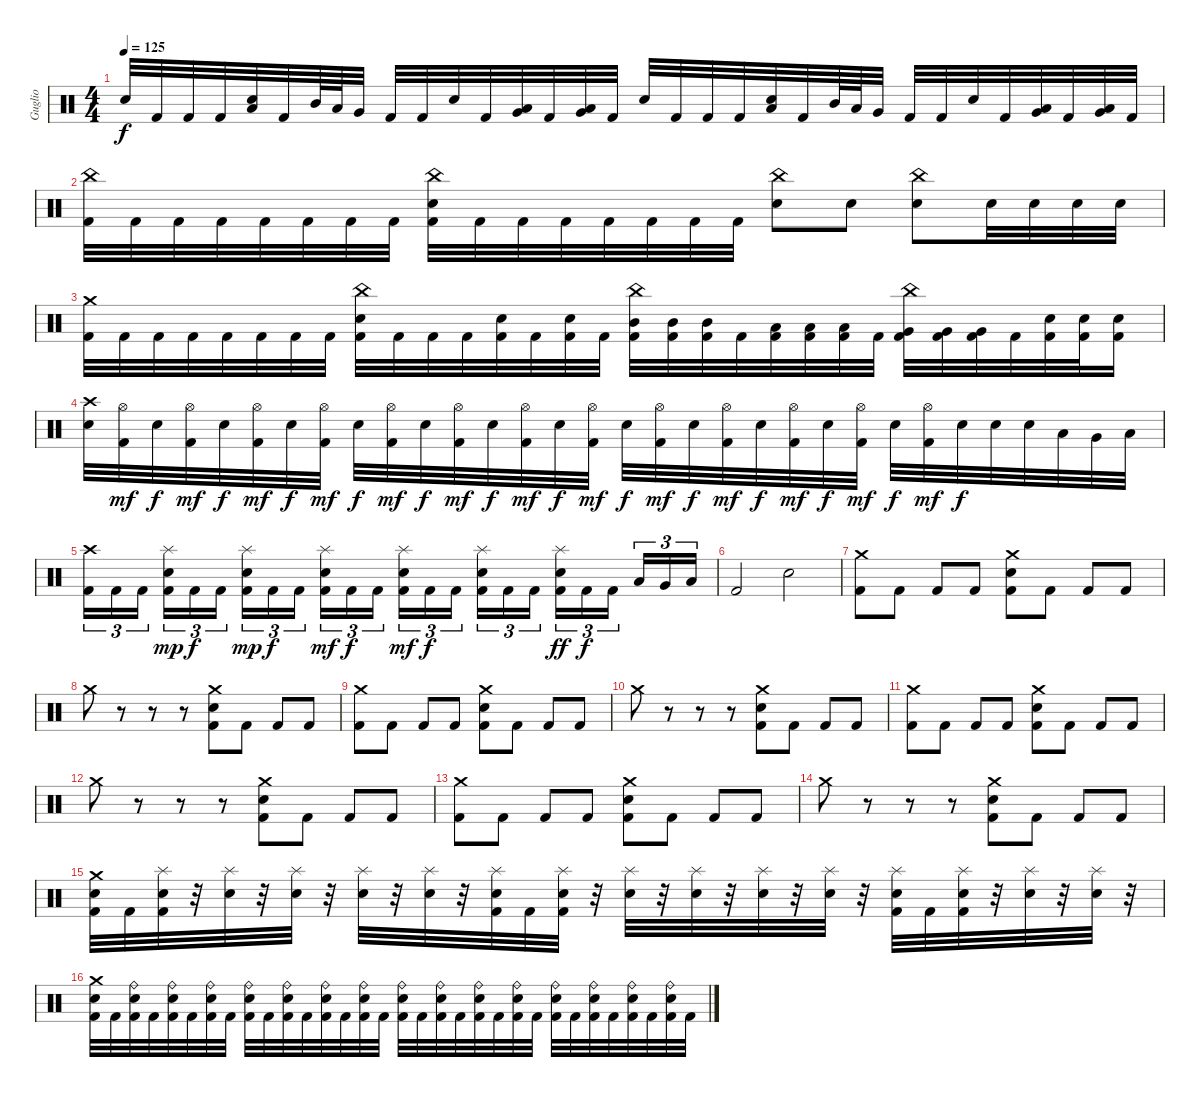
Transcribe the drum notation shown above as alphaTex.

\track ("Guglio" "Guglio") {instrument percussion}
\staff {score}
\articulation defaults
\ts (4 4)
\tempo 125
\clef neutral
\ks c "Electric Snare (hit)".32{bd 60 dy f} "Kick (hit) 2".32 "Kick (hit) 2".32 "Kick (hit) 2".32
("Low Tom (hit)" "Electric Snare (hit)").32 "Kick (hit) 2".32 "Mid Tom (hit)".64 "Low Tom (hit)".64 "Very Low Tom (hit)".32 "Kick (hit) 2".32 "Kick (hit) 2".32 "Electric Snare (hit)".32 "Kick (hit) 2".32 ("Low Tom (hit)" "Very Low Tom (hit)").32 "Kick (hit) 2".32 ("Very Low Tom (hit)" "Low Floor Tom (hit)").32 "Kick (hit) 2".32 "Electric Snare (hit)".32 "Kick (hit) 2".32 "Kick (hit) 2".32 "Kick (hit) 2".32 ("Low Tom (hit)" "Electric Snare (hit)").32 "Kick (hit) 2".32 "Mid Tom (hit)".64 "Low Tom (hit)".64 "Very Low Tom (hit)".32 "Kick (hit) 2".32 "Kick (hit) 2".32 "Electric Snare (hit)".32 "Kick (hit) 2".32 ("Low Tom (hit)" "Very Low Tom (hit)").32 "Kick (hit) 2".32 ("Very Low Tom (hit)" "Low Floor Tom (hit)").32 "Kick (hit) 2".32 |
("China (hit)" "Kick (hit) 2").32 "Kick (hit) 2".32 "Kick (hit) 2".32 "Kick (hit) 2".32 "Kick (hit) 2".32 "Kick (hit) 2".32 "Kick (hit) 2".32 "Kick (hit) 2".32 ("China (hit)" "Electric Snare (hit)" "Kick (hit) 2").32 "Kick (hit) 2".32 "Kick (hit) 2".32 "Kick (hit) 2".32 "Kick (hit) 2".32 "Kick (hit) 2".32 "Kick (hit) 2".32 "Kick (hit) 2".32 ("China (hit)" "Electric Snare (hit)").8 "Electric Snare (hit)".8 ("China (hit)" "Electric Snare (hit)").8 "Electric Snare (hit)".32 "Electric Snare (hit)".32 "Electric Snare (hit)".32 "Electric Snare (hit)".32 |
("Crash medium (hit)" "Kick (hit) 2").32 "Kick (hit) 2".32 "Kick (hit) 2".32 "Kick (hit) 2".32 "Kick (hit) 2".32 "Kick (hit) 2".32 "Kick (hit) 2".32 "Kick (hit) 2".32 ("China (hit)" "Electric Snare (hit)" "Kick (hit) 2").32 "Kick (hit) 2".32 "Kick (hit) 2".32 "Kick (hit) 2".32 ("Electric Snare (hit)" "Kick (hit) 2").32 "Kick (hit) 2".32 ("Electric Snare (hit)" "Kick (hit) 2").32 "Kick (hit) 2".32 ("China (hit)" "Mid Tom (hit)" "Kick (hit) 2").32 ("Mid Tom (hit)" "Kick (hit) 2").32 ("Mid Tom (hit)" "Kick (hit) 2").32 "Kick (hit) 2".32 ("Low Tom (hit)" "Kick (hit) 2").32 ("Low Tom (hit)" "Kick (hit) 2").32 ("Low Tom (hit)" "Kick (hit) 2").32 "Kick (hit) 2".32 ("China (hit)" "Very Low Tom (hit)" "Kick (hit) 2").32 ("Very Low Tom (hit)" "Kick (hit) 2").32 ("Very Low Tom (hit)" "Kick (hit) 2").32 "Kick (hit) 2".32 ("Electric Snare (hit)" "Kick (hit) 2").32 ("Electric Snare (hit)" "Kick (hit) 2").32 ("Electric Snare (hit)" "Kick (hit) 2").16 |
("Crash high (hit)" "Electric Snare (hit)").32 ("Hi-Hat (open)" "Kick (hit) 2").32{dy mf} "Electric Snare (hit)".32{dy f} ("Hi-Hat (open)" "Kick (hit) 2").32{dy mf} "Electric Snare (hit)".32{dy f} ("Hi-Hat (open)" "Kick (hit) 2").32{dy mf} "Electric Snare (hit)".32{dy f} ("Hi-Hat (open)" "Kick (hit) 2").32{dy mf} "Electric Snare (hit)".32{dy f} ("Hi-Hat (open)" "Kick (hit) 2").32{dy mf} "Electric Snare (hit)".32{dy f} ("Hi-Hat (open)" "Kick (hit) 2").32{dy mf} "Electric Snare (hit)".32{dy f} ("Hi-Hat (open)" "Kick (hit) 2").32{dy mf} "Electric Snare (hit)".32{dy f} ("Hi-Hat (open)" "Kick (hit) 2").32{dy mf} "Electric Snare (hit)".32{dy f} ("Hi-Hat (open)" "Kick (hit) 2").32{dy mf} "Electric Snare (hit)".32{dy f} ("Hi-Hat (open)" "Kick (hit) 2").32{dy mf} "Electric Snare (hit)".32{dy f} ("Hi-Hat (open)" "Kick (hit) 2").32{dy mf} "Electric Snare (hit)".32{dy f} ("Hi-Hat (open)" "Kick (hit) 2").32{dy mf} "Electric Snare (hit)".32{dy f} ("Hi-Hat (open)" "Kick (hit) 2").32{dy mf} "Electric Snare (hit)".32{dy f} "Electric Snare (hit)".32 "Electric Snare (hit)".32 "Low Tom (hit)".32 "Very Low Tom (hit)".32 "Low Floor Tom (hit)".32 |
("Crash high (hit)" "Kick (hit) 2").16{tu (3 2)} "Kick (hit) 2".16{tu (3 2)} "Kick (hit) 2".16{tu (3 2) beam splitsecondary} ("Splash (hit)" "Electric Snare (hit)" "Kick (hit) 2").16{tu (3 2) dy mp} "Kick (hit) 2".16{tu (3 2) dy f} "Kick (hit) 2".16{tu (3 2)} ("Splash (hit)" "Electric Snare (hit)" "Kick (hit) 2").16{tu (3 2) dy mp} "Kick (hit) 2".16{tu (3 2) dy f} "Kick (hit) 2".16{tu (3 2) beam splitsecondary} ("Splash (hit)" "Electric Snare (hit)" "Kick (hit) 2").16{tu (3 2) dy mf} "Kick (hit) 2".16{tu (3 2) dy f} "Kick (hit) 2".16{tu (3 2)} ("Splash (hit)" "Electric Snare (hit)" "Kick (hit) 2").16{tu (3 2) dy mf} "Kick (hit) 2".16{tu (3 2) dy f} "Kick (hit) 2".16{tu (3 2) beam splitsecondary} ("Splash (hit)" "Electric Snare (hit)" "Kick (hit) 2").16{tu (3 2)} "Kick (hit) 2".16{tu (3 2)} "Kick (hit) 2".16{tu (3 2)} ("Splash (hit)" "Electric Snare (hit)" "Kick (hit) 2").16{tu (3 2) dy ff} "Kick (hit) 2".16{tu (3 2) dy f} "Kick (hit) 2".16{tu (3 2) beam splitsecondary} "Low Tom (hit)".16{tu (3 2)} "Very Low Tom (hit)".16{tu (3 2)} "Low Floor Tom (hit)".16{tu (3 2)} |
"Kick (hit) 2".2 "Electric Snare (hit)".2 |
("Crash medium (hit)" "Kick (hit) 2").8 "Kick (hit) 2".8 "Kick (hit) 2".8 "Kick (hit) 2".8 ("Crash medium (hit)" "Electric Snare (hit)" "Kick (hit) 2").8 "Kick (hit) 2".8 "Kick (hit) 2".8 "Kick (hit) 2".8 |
"Crash medium (hit)".8 r.8 r.8 r.8 ("Crash medium (hit)" "Electric Snare (hit)" "Kick (hit) 2").8 "Kick (hit) 2".8 "Kick (hit) 2".8 "Kick (hit) 2".8 |
("Crash medium (hit)" "Kick (hit) 2").8 "Kick (hit) 2".8 "Kick (hit) 2".8 "Kick (hit) 2".8 ("Crash medium (hit)" "Electric Snare (hit)" "Kick (hit) 2").8 "Kick (hit) 2".8 "Kick (hit) 2".8 "Kick (hit) 2".8 |
"Crash medium (hit)".8 r.8 r.8 r.8 ("Crash medium (hit)" "Electric Snare (hit)" "Kick (hit) 2").8 "Kick (hit) 2".8 "Kick (hit) 2".8 "Kick (hit) 2".8 |
("Crash medium (hit)" "Kick (hit) 2").8 "Kick (hit) 2".8 "Kick (hit) 2".8 "Kick (hit) 2".8 ("Crash medium (hit)" "Electric Snare (hit)" "Kick (hit) 2").8 "Kick (hit) 2".8 "Kick (hit) 2".8 "Kick (hit) 2".8 |
"Crash medium (hit)".8 r.8 r.8 r.8 ("Crash medium (hit)" "Electric Snare (hit)" "Kick (hit) 2").8 "Kick (hit) 2".8 "Kick (hit) 2".8 "Kick (hit) 2".8 |
("Crash medium (hit)" "Kick (hit) 2").8 "Kick (hit) 2".8 "Kick (hit) 2".8 "Kick (hit) 2".8 ("Crash medium (hit)" "Electric Snare (hit)" "Kick (hit) 2").8 "Kick (hit) 2".8 "Kick (hit) 2".8 "Kick (hit) 2".8 |
"Crash medium (hit)".8 r.8 r.8 r.8 ("Crash medium (hit)" "Electric Snare (hit)" "Kick (hit) 2").8 "Kick (hit) 2".8 "Kick (hit) 2".8 "Kick (hit) 2".8 |
("Crash medium (hit)" "Electric Snare (hit)" "Kick (hit) 2").32 "Kick (hit) 2".32 ("Splash (hit)" "Electric Snare (hit)" "Kick (hit) 2").32 r.32 ("Splash (hit)" "Electric Snare (hit)").32 r.32 ("Splash (hit)" "Electric Snare (hit)").32 r.32 ("Splash (hit)" "Electric Snare (hit)").32 r.32 ("Splash (hit)" "Electric Snare (hit)").32 r.32 ("Splash (hit)" "Electric Snare (hit)" "Kick (hit) 2").32 "Kick (hit) 2".32 ("Splash (hit)" "Electric Snare (hit)" "Kick (hit) 2").32 r.32 ("Splash (hit)" "Electric Snare (hit)").32 r.32 ("Splash (hit)" "Electric Snare (hit)").32 r.32 ("Splash (hit)" "Electric Snare (hit)").32 r.32 ("Splash (hit)" "Electric Snare (hit)").32 r.32 ("Splash (hit)" "Electric Snare (hit)" "Kick (hit) 2").32 "Kick (hit) 2".32 ("Splash (hit)" "Electric Snare (hit)" "Kick (hit) 2").32 r.32 ("Splash (hit)" "Electric Snare (hit)").32 r.32 ("Splash (hit)" "Electric Snare (hit)").32 r.32 |
("Crash medium (hit)" "Electric Snare (hit)" "Kick (hit) 2").32 "Kick (hit) 2".32 ("Ride (bell)" "Electric Snare (hit)" "Kick (hit) 2").32 "Kick (hit) 2".32 ("Ride (bell)" "Electric Snare (hit)" "Kick (hit) 2").32 "Kick (hit) 2".32 ("Ride (bell)" "Electric Snare (hit)" "Kick (hit) 2").32 "Kick (hit) 2".32 ("Ride (bell)" "Electric Snare (hit)" "Kick (hit) 2").32 "Kick (hit) 2".32 ("Ride (bell)" "Electric Snare (hit)" "Kick (hit) 2").32 "Kick (hit) 2".32 ("Ride (bell)" "Electric Snare (hit)" "Kick (hit) 2").32 "Kick (hit) 2".32 ("Ride (bell)" "Electric Snare (hit)" "Kick (hit) 2").32 "Kick (hit) 2".32 ("Ride (bell)" "Electric Snare (hit)" "Kick (hit) 2").32 "Kick (hit) 2".32 ("Ride (bell)" "Electric Snare (hit)" "Kick (hit) 2").32 "Kick (hit) 2".32 ("Ride (bell)" "Electric Snare (hit)" "Kick (hit) 2").32 "Kick (hit) 2".32 ("Ride (bell)" "Electric Snare (hit)" "Kick (hit) 2").32 "Kick (hit) 2".32 ("Ride (bell)" "Electric Snare (hit)" "Kick (hit) 2").32 "Kick (hit) 2".32 ("Ride (bell)" "Electric Snare (hit)" "Kick (hit) 2").32 "Kick (hit) 2".32 ("Ride (bell)" "Electric Snare (hit)" "Kick (hit) 2").32 "Kick (hit) 2".32 ("Ride (bell)" "Electric Snare (hit)" "Kick (hit) 2").32 "Kick (hit) 2".32
